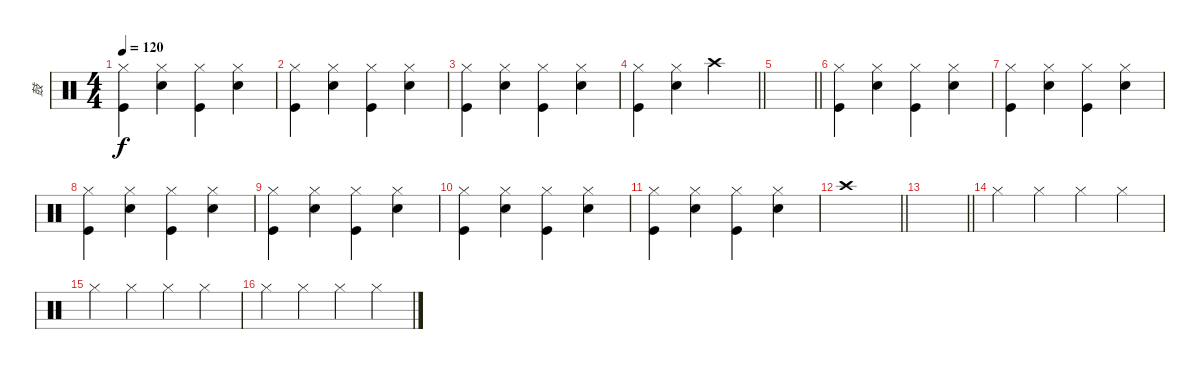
\track ("鼓" "鼓") {instrument percussion}
\staff {score}
\articulation defaults
\ts (4 4)
\tempo 120
\clef neutral
\ks c
("Kick (hit)" "Hi-Hat (closed)").4{dy f} ("Hi-Hat (closed)" "Snare (hit) 2").4 ("Kick (hit)" "Hi-Hat (closed)").4 ("Hi-Hat (closed)" "Snare (hit) 2").4 |
("Kick (hit)" "Hi-Hat (closed)").4 ("Hi-Hat (closed)" "Snare (hit) 2").4 ("Kick (hit)" "Hi-Hat (closed)").4 ("Hi-Hat (closed)" "Snare (hit) 2").4 |
("Kick (hit)" "Hi-Hat (closed)").4 ("Hi-Hat (closed)" "Snare (hit) 2").4 ("Kick (hit)" "Hi-Hat (closed)").4 ("Hi-Hat (closed)" "Snare (hit) 2").4 |
\barLineRight lightlight
("Kick (hit)" "Hi-Hat (closed)").4 ("Hi-Hat (closed)" "Snare (hit) 2").4 "Crash high (hit)".2 |
\barLineRight lightlight
|
("Kick (hit)" "Hi-Hat (closed)").4 ("Hi-Hat (closed)" "Snare (hit) 2").4 ("Kick (hit)" "Hi-Hat (closed)").4 ("Hi-Hat (closed)" "Snare (hit) 2").4 |
("Kick (hit)" "Hi-Hat (closed)").4 ("Hi-Hat (closed)" "Snare (hit) 2").4 ("Kick (hit)" "Hi-Hat (closed)").4 ("Hi-Hat (closed)" "Snare (hit) 2").4 |
("Kick (hit)" "Hi-Hat (closed)").4 ("Hi-Hat (closed)" "Snare (hit) 2").4 ("Kick (hit)" "Hi-Hat (closed)").4 ("Hi-Hat (closed)" "Snare (hit) 2").4 |
("Kick (hit)" "Hi-Hat (closed)").4 ("Hi-Hat (closed)" "Snare (hit) 2").4 ("Kick (hit)" "Hi-Hat (closed)").4 ("Hi-Hat (closed)" "Snare (hit) 2").4 |
("Kick (hit)" "Hi-Hat (closed)").4 ("Hi-Hat (closed)" "Snare (hit) 2").4 ("Kick (hit)" "Hi-Hat (closed)").4 ("Hi-Hat (closed)" "Snare (hit) 2").4 |
("Kick (hit)" "Hi-Hat (closed)").4 ("Hi-Hat (closed)" "Snare (hit) 2").4 ("Kick (hit)" "Hi-Hat (closed)").4 ("Hi-Hat (closed)" "Snare (hit) 2").4 |
\barLineRight lightlight "Crash high (hit)".1
|
\barLineRight lightlight
|
"Hi-Hat (closed)".4 "Hi-Hat (closed)".4 "Hi-Hat (closed)".4 "Hi-Hat (closed)".4 |
"Hi-Hat (closed)".4 "Hi-Hat (closed)".4 "Hi-Hat (closed)".4 "Hi-Hat (closed)".4 |
"Hi-Hat (closed)".4 "Hi-Hat (closed)".4 "Hi-Hat (closed)".4 "Hi-Hat (closed)".4
